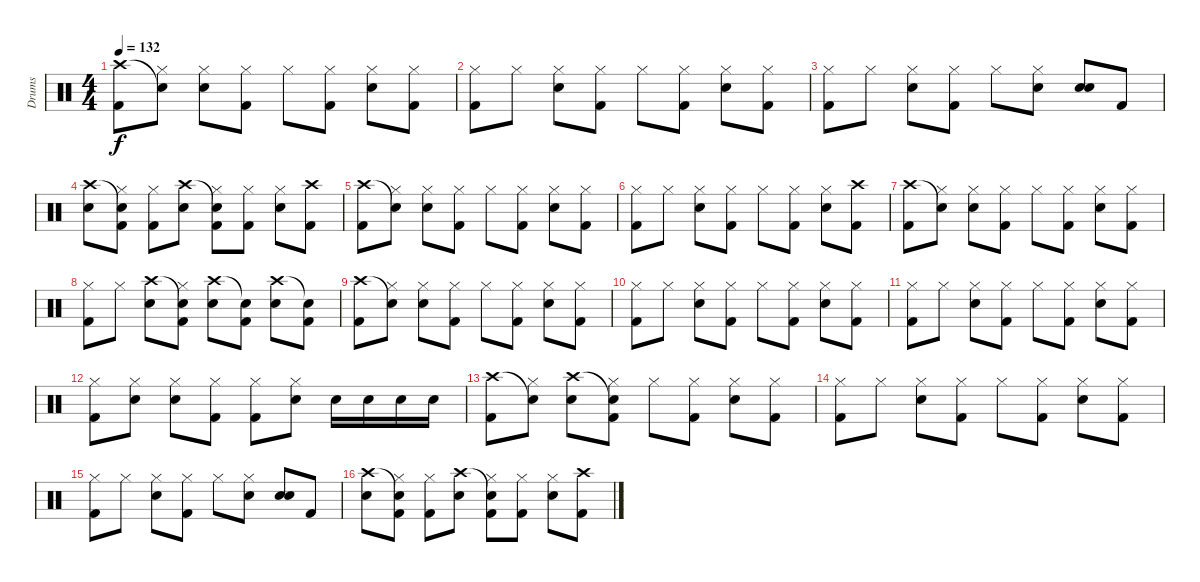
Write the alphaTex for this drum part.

\track ("Drums" "Drums") {instrument percussion}
\staff {score}
\articulation defaults
\ts (4 4)
\tempo 132
\clef neutral
\ks c
("Crash high (hit)" "Kick (hit) 2").8{dy f} ("Snare (hit)"{t} "Hi-Hat (closed)").8 ("Hi-Hat (closed)" "Snare (hit) 2").8 ("Hi-Hat (closed)" "Kick (hit) 2").8 "Hi-Hat (closed)".8 ("Hi-Hat (closed)" "Kick (hit) 2").8 ("Hi-Hat (closed)" "Snare (hit) 2").8 ("Hi-Hat (closed)" "Kick (hit) 2").8 |
("Hi-Hat (closed)" "Kick (hit) 2").8 "Hi-Hat (closed)".8 ("Hi-Hat (closed)" "Snare (hit) 2").8 ("Hi-Hat (closed)" "Kick (hit) 2").8 "Hi-Hat (closed)".8 ("Hi-Hat (closed)" "Kick (hit) 2").8 ("Hi-Hat (closed)" "Snare (hit) 2").8 ("Hi-Hat (closed)" "Kick (hit) 2").8 |
("Hi-Hat (closed)" "Kick (hit) 2").8 "Hi-Hat (closed)".8 ("Hi-Hat (closed)" "Snare (hit) 2").8 ("Hi-Hat (closed)" "Kick (hit) 2").8 "Hi-Hat (closed)".8 ("Hi-Hat (closed)" "Snare (hit) 2").8 ("Snare (hit) 2" "Snare (hit) 2").8 "Kick (hit) 2".8 |
("Crash high (hit)" "Snare (hit) 2").8 ("Snare (hit)"{t} "Hi-Hat (closed)" "Kick (hit) 2").8 ("Hi-Hat (closed)" "Kick (hit) 2").8 ("Crash high (hit)" "Snare (hit) 2").8 ("Snare (hit)"{t} "Hi-Hat (closed)" "Kick (hit) 2").8 ("Hi-Hat (closed)" "Kick (hit) 2").8 ("Hi-Hat (closed)" "Snare (hit) 2").8 ("Crash high (hit)" "Kick (hit) 2").8 |
("Crash high (hit)" "Kick (hit) 2").8 ("Snare (hit)"{t} "Hi-Hat (closed)").8 ("Hi-Hat (closed)" "Snare (hit) 2").8 ("Hi-Hat (closed)" "Kick (hit) 2").8 "Hi-Hat (closed)".8 ("Hi-Hat (closed)" "Kick (hit) 2").8 ("Hi-Hat (closed)" "Snare (hit) 2").8 ("Hi-Hat (closed)" "Kick (hit) 2").8 |
("Hi-Hat (closed)" "Kick (hit) 2").8 "Hi-Hat (closed)".8 ("Hi-Hat (closed)" "Snare (hit) 2").8 ("Hi-Hat (closed)" "Kick (hit) 2").8 "Hi-Hat (closed)".8 ("Hi-Hat (closed)" "Kick (hit) 2").8 ("Hi-Hat (closed)" "Snare (hit) 2").8 ("Crash high (hit)" "Kick (hit) 2").8 |
("Crash high (hit)" "Kick (hit) 2").8 ("Snare (hit)"{t} "Hi-Hat (closed)").8 ("Hi-Hat (closed)" "Snare (hit) 2").8 ("Hi-Hat (closed)" "Kick (hit) 2").8 "Hi-Hat (closed)".8 ("Hi-Hat (closed)" "Kick (hit) 2").8 ("Hi-Hat (closed)" "Snare (hit) 2").8 ("Hi-Hat (closed)" "Kick (hit) 2").8 |
("Hi-Hat (closed)" "Kick (hit) 2").8 "Hi-Hat (closed)".8 ("Crash high (hit)" "Snare (hit) 2").8 ("Snare (hit)"{t} "Hi-Hat (closed)" "Kick (hit) 2").8 ("Crash high (hit)" "Snare (hit) 2").8 ("Snare (hit)"{t} "Kick (hit) 2").8 ("Crash high (hit)" "Snare (hit) 2").8 ("Snare (hit)"{t} "Kick (hit) 2").8 |
("Crash high (hit)" "Kick (hit) 2").8 ("Snare (hit)"{t} "Hi-Hat (closed)").8 ("Hi-Hat (closed)" "Snare (hit) 2").8 ("Hi-Hat (closed)" "Kick (hit) 2").8 "Hi-Hat (closed)".8 ("Hi-Hat (closed)" "Kick (hit) 2").8 ("Hi-Hat (closed)" "Snare (hit) 2").8 ("Hi-Hat (closed)" "Kick (hit) 2").8 |
("Hi-Hat (closed)" "Kick (hit) 2").8 "Hi-Hat (closed)".8 ("Hi-Hat (closed)" "Snare (hit) 2").8 ("Hi-Hat (closed)" "Kick (hit) 2").8 "Hi-Hat (closed)".8 ("Hi-Hat (closed)" "Kick (hit) 2").8 ("Hi-Hat (closed)" "Snare (hit) 2").8 ("Hi-Hat (closed)" "Kick (hit) 2").8 |
("Hi-Hat (closed)" "Kick (hit) 2").8 "Hi-Hat (closed)".8 ("Hi-Hat (closed)" "Snare (hit) 2").8 ("Hi-Hat (closed)" "Kick (hit) 2").8 "Hi-Hat (closed)".8 ("Hi-Hat (closed)" "Kick (hit) 2").8 ("Hi-Hat (closed)" "Snare (hit) 2").8 ("Hi-Hat (closed)" "Kick (hit) 2").8 |
("Hi-Hat (closed)" "Kick (hit) 2").8 ("Hi-Hat (closed)" "Snare (hit) 2").8 ("Hi-Hat (closed)" "Snare (hit) 2").8 ("Hi-Hat (closed)" "Kick (hit) 2").8 ("Hi-Hat (closed)" "Kick (hit) 2").8 ("Hi-Hat (closed)" "Snare (hit) 2").8 "Snare (hit) 2".16 "Snare (hit) 2".16 "Snare (hit) 2".16 "Snare (hit) 2".16 |
("Crash high (hit)" "Kick (hit) 2").8 ("Snare (hit)"{t} "Hi-Hat (closed)").8 ("Crash high (hit)" "Snare (hit) 2").8 ("Snare (hit)"{t} "Hi-Hat (closed)" "Kick (hit) 2").8 "Hi-Hat (closed)".8 ("Hi-Hat (closed)" "Kick (hit) 2").8 ("Hi-Hat (closed)" "Snare (hit) 2").8 ("Hi-Hat (closed)" "Kick (hit) 2").8 |
("Hi-Hat (closed)" "Kick (hit) 2").8 "Hi-Hat (closed)".8 ("Hi-Hat (closed)" "Snare (hit) 2").8 ("Hi-Hat (closed)" "Kick (hit) 2").8 "Hi-Hat (closed)".8 ("Hi-Hat (closed)" "Kick (hit) 2").8 ("Hi-Hat (closed)" "Snare (hit) 2").8 ("Hi-Hat (closed)" "Kick (hit) 2").8 |
("Hi-Hat (closed)" "Kick (hit) 2").8 "Hi-Hat (closed)".8 ("Hi-Hat (closed)" "Snare (hit) 2").8 ("Hi-Hat (closed)" "Kick (hit) 2").8 "Hi-Hat (closed)".8 ("Hi-Hat (closed)" "Snare (hit) 2").8 ("Snare (hit) 2" "Snare (hit) 2").8 "Kick (hit) 2".8 |
("Crash high (hit)" "Snare (hit) 2").8 ("Snare (hit)"{t} "Hi-Hat (closed)" "Kick (hit) 2").8 ("Hi-Hat (closed)" "Kick (hit) 2").8 ("Crash high (hit)" "Snare (hit) 2").8 ("Snare (hit)"{t} "Hi-Hat (closed)" "Kick (hit) 2").8 ("Hi-Hat (closed)" "Kick (hit) 2").8 ("Hi-Hat (closed)" "Snare (hit) 2").8 ("Crash high (hit)" "Kick (hit) 2").8
